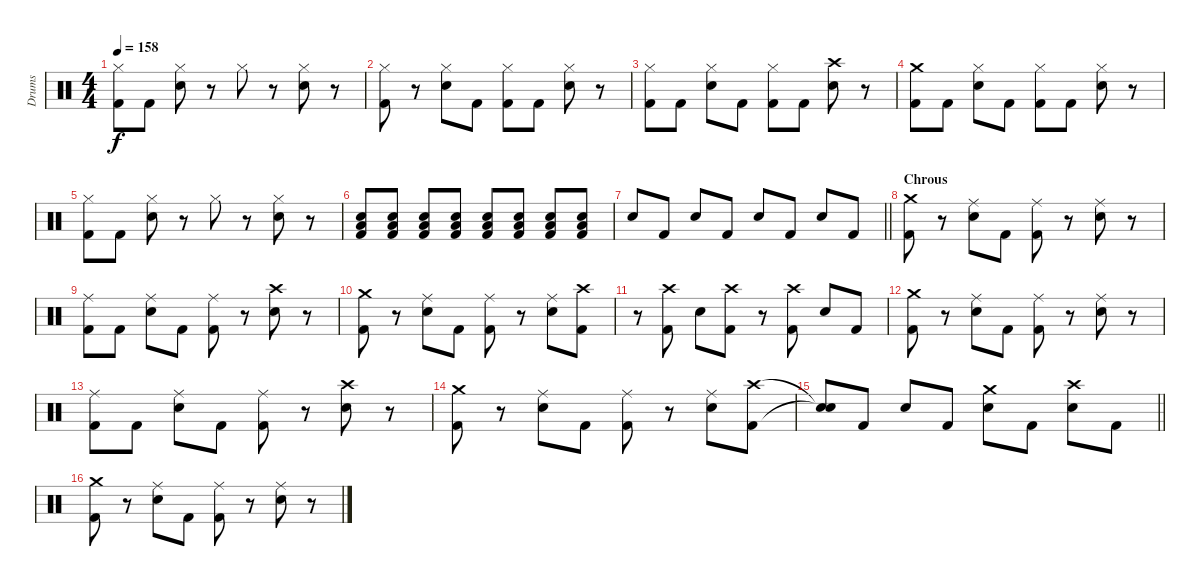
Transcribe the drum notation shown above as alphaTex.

\track ("Drums" "Drums") {instrument percussion}
\staff {score}
\articulation defaults
\ts (4 4)
\tempo 158
\clef neutral
\ks c
("Hi-Hat (closed)" "Kick (hit) 2").8{dy f} "Kick (hit) 2".8 ("Hi-Hat (closed)" "Electric Snare (hit)").8 r.8 "Hi-Hat (closed)".8 r.8 ("Hi-Hat (closed)" "Electric Snare (hit)").8 r.8 |
("Hi-Hat (closed)" "Kick (hit) 2").8 r.8 ("Hi-Hat (closed)" "Electric Snare (hit)").8 "Kick (hit) 2".8 ("Hi-Hat (closed)" "Kick (hit) 2").8 "Kick (hit) 2".8 ("Hi-Hat (closed)" "Electric Snare (hit)").8 r.8 |
("Hi-Hat (closed)" "Kick (hit) 2").8 "Kick (hit) 2".8 ("Hi-Hat (closed)" "Electric Snare (hit)").8 "Kick (hit) 2".8 ("Hi-Hat (closed)" "Kick (hit) 2").8 "Kick (hit) 2".8 ("Crash high (hit)" "Electric Snare (hit)").8 r.8 |
("Crash medium (hit)" "Kick (hit) 2").8 "Kick (hit) 2".8 ("Hi-Hat (closed)" "Electric Snare (hit)").8 "Kick (hit) 2".8 ("Hi-Hat (closed)" "Kick (hit) 2").8 "Kick (hit) 2".8 ("Hi-Hat (closed)" "Electric Snare (hit)").8 r.8 |
("Hi-Hat (closed)" "Kick (hit) 2").8 "Kick (hit) 2".8 ("Hi-Hat (closed)" "Electric Snare (hit)").8 r.8 "Hi-Hat (closed)".8 r.8 ("Hi-Hat (closed)" "Electric Snare (hit)").8 r.8 |
("Electric Snare (hit)" "Low Floor Tom (hit)" "Kick (hit) 2").8 ("Electric Snare (hit)" "Low Floor Tom (hit)" "Kick (hit) 2").8 ("Electric Snare (hit)" "Low Floor Tom (hit)" "Kick (hit) 2").8 ("Electric Snare (hit)" "Low Floor Tom (hit)" "Kick (hit) 2").8 ("Electric Snare (hit)" "Low Floor Tom (hit)" "Kick (hit) 2").8 ("Electric Snare (hit)" "Low Floor Tom (hit)" "Kick (hit) 2").8 ("Electric Snare (hit)" "Low Floor Tom (hit)" "Kick (hit) 2").8 ("Electric Snare (hit)" "Low Floor Tom (hit)" "Kick (hit) 2").8 |
\barLineRight lightlight "Electric Snare (hit)".8 "Kick (hit) 2".8 "Electric Snare (hit)".8 "Kick (hit) 2".8 "Electric Snare (hit)".8 "Kick (hit) 2".8 "Electric Snare (hit)".8 "Kick (hit) 2".8
|
\section ("" "Chrous")
("Crash medium (hit)" "Kick (hit) 2").8 r.8 ("Ride (middle)" "Electric Snare (hit)").8 "Kick (hit) 2".8 ("Ride (middle)" "Kick (hit) 2").8 r.8 ("Ride (middle)" "Electric Snare (hit)").8 r.8 |
("Ride (middle)" "Kick (hit) 2").8 "Kick (hit) 2".8 ("Ride (middle)" "Electric Snare (hit)").8 "Kick (hit) 2".8 ("Ride (middle)" "Kick (hit) 2").8 r.8 ("Crash high (hit)" "Electric Snare (hit)").8 r.8 |
("Crash medium (hit)" "Kick (hit) 2").8 r.8 ("Ride (middle)" "Electric Snare (hit)").8 "Kick (hit) 2".8 ("Ride (middle)" "Kick (hit) 2").8 r.8 ("Ride (middle)" "Electric Snare (hit)").8 ("Crash high (hit)" "Kick (hit) 2").8 |
r.8 ("Crash high (hit)" "Kick (hit) 2").8 "Electric Snare (hit)".8 ("Crash high (hit)" "Kick (hit) 2").8 r.8 ("Crash high (hit)" "Kick (hit) 2").8 "Electric Snare (hit)".8 "Kick (hit) 2".8 |
("Crash medium (hit)" "Kick (hit) 2").8 r.8 ("Ride (middle)" "Electric Snare (hit)").8 "Kick (hit) 2".8 ("Ride (middle)" "Kick (hit) 2").8 r.8 ("Ride (middle)" "Electric Snare (hit)").8 r.8 |
("Ride (middle)" "Kick (hit) 2").8 "Kick (hit) 2".8 ("Ride (middle)" "Electric Snare (hit)").8 "Kick (hit) 2".8 ("Ride (middle)" "Kick (hit) 2").8 r.8 ("Crash high (hit)" "Electric Snare (hit)").8 r.8 |
("Crash medium (hit)" "Kick (hit) 2").8 r.8 ("Ride (middle)" "Electric Snare (hit)").8 "Kick (hit) 2".8 ("Ride (middle)" "Kick (hit) 2").8 r.8 ("Ride (middle)" "Electric Snare (hit)").8 ("Crash high (hit)" "Kick (hit) 2").8 |
\barLineRight lightlight
("Snare (hit)"{t} "Snare (hit)"{t}).8 "Kick (hit) 2".8 "Electric Snare (hit)".8 "Kick (hit) 2".8 ("Crash medium (hit)" "Electric Snare (hit)").8 "Kick (hit) 2".8 ("Crash high (hit)" "Electric Snare (hit)").8 "Kick (hit) 2".8 |
("Crash medium (hit)" "Kick (hit) 2").8 r.8 ("Ride (middle)" "Electric Snare (hit)").8 "Kick (hit) 2".8 ("Ride (middle)" "Kick (hit) 2").8 r.8 ("Ride (middle)" "Electric Snare (hit)").8 r.8
